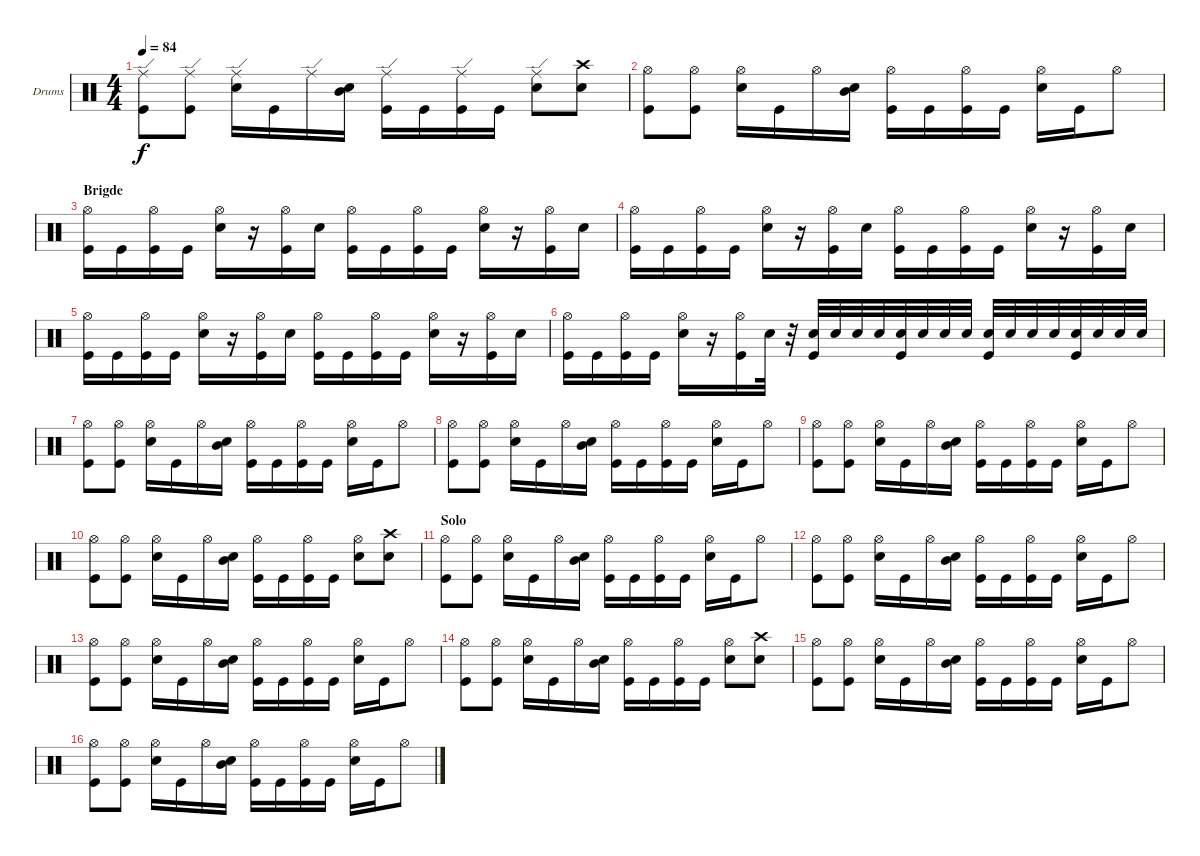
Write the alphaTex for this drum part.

\bracketExtendMode groupsimilarinstruments
\firstSystemTrackNameOrientation horizontal
\otherSystemsTrackNameOrientation horizontal
\track ("Dave Grohl" "Drums") {instrument percussion}
\staff {score}
\articulation defaults
\ts (4 4)
\tempo 84
\clef neutral
\ks c
("Ride (edge)" "Kick (hit)").8{dy f} ("Ride (edge)" "Kick (hit)").8 ("Ride (edge)" "Snare (hit) 2").16 "Kick (hit)".16 "Ride (edge)".16 ("Snare (hit) 2" "Mid Tom (hit)").16 ("Ride (edge)" "Kick (hit)").16 "Kick (hit)".16 ("Ride (edge)" "Kick (hit)").16 "Kick (hit)".16 ("Ride (edge)" "Snare (hit) 2").8 ("Crash high (hit)" "Snare (hit) 2").8 |
("Hi-Hat (open)" "Kick (hit)").8 ("Hi-Hat (open)" "Kick (hit)").8 ("Hi-Hat (open)" "Snare (hit) 2").16 "Kick (hit)".16 "Hi-Hat (open)".16 ("Snare (hit) 2" "Mid Tom (hit)").16 ("Hi-Hat (open)" "Kick (hit)").16 "Kick (hit)".16 ("Hi-Hat (open)" "Kick (hit)").16 "Kick (hit)".16 ("Hi-Hat (open)" "Snare (hit) 2").16 "Kick (hit)".16 "Hi-Hat (open)".8 |
\section ("" "Brigde")
("Hi-Hat (open)" "Kick (hit)").16 "Kick (hit)".16 ("Hi-Hat (open)" "Kick (hit)").16 "Kick (hit)".16 ("Hi-Hat (open)" "Snare (hit) 2").16 r.16 ("Hi-Hat (open)" "Kick (hit)").16 "Snare (hit) 2".16 ("Hi-Hat (open)" "Kick (hit)").16 "Kick (hit)".16 ("Hi-Hat (open)" "Kick (hit)").16 "Kick (hit)".16 ("Hi-Hat (open)" "Snare (hit) 2").16 r.16 ("Hi-Hat (open)" "Kick (hit)").16 "Snare (hit) 2".16 |
("Hi-Hat (open)" "Kick (hit)").16 "Kick (hit)".16 ("Hi-Hat (open)" "Kick (hit)").16 "Kick (hit)".16 ("Hi-Hat (open)" "Snare (hit) 2").16 r.16 ("Hi-Hat (open)" "Kick (hit)").16 "Snare (hit) 2".16 ("Hi-Hat (open)" "Kick (hit)").16 "Kick (hit)".16 ("Hi-Hat (open)" "Kick (hit)").16 "Kick (hit)".16 ("Hi-Hat (open)" "Snare (hit) 2").16 r.16 ("Hi-Hat (open)" "Kick (hit)").16 "Snare (hit) 2".16 |
("Hi-Hat (open)" "Kick (hit)").16 "Kick (hit)".16 ("Hi-Hat (open)" "Kick (hit)").16 "Kick (hit)".16 ("Hi-Hat (open)" "Snare (hit) 2").16 r.16 ("Hi-Hat (open)" "Kick (hit)").16 "Snare (hit) 2".16 ("Hi-Hat (open)" "Kick (hit)").16 "Kick (hit)".16 ("Hi-Hat (open)" "Kick (hit)").16 "Kick (hit)".16 ("Hi-Hat (open)" "Snare (hit) 2").16 r.16 ("Hi-Hat (open)" "Kick (hit)").16 "Snare (hit) 2".16 |
("Hi-Hat (open)" "Kick (hit)").16 "Kick (hit)".16 ("Hi-Hat (open)" "Kick (hit)").16 "Kick (hit)".16 ("Hi-Hat (open)" "Snare (hit) 2").16 r.16 ("Hi-Hat (open)" "Kick (hit)").16 "Snare (hit) 2".32 r.32 ("Kick (hit)" "Snare (hit) 2").32 "Snare (hit) 2".32 "Snare (hit) 2".32 "Snare (hit) 2".32 ("Kick (hit)" "Snare (hit) 2").32 "Snare (hit) 2".32 "Snare (hit) 2".32 "Snare (hit) 2".32 ("Kick (hit)" "Snare (hit) 2").32 "Snare (hit) 2".32 "Snare (hit) 2".32 "Snare (hit) 2".32 ("Kick (hit)" "Snare (hit) 2").32 "Snare (hit) 2".32 "Snare (hit) 2".32 "Snare (hit) 2".32 |
("Hi-Hat (open)" "Kick (hit)").8 ("Hi-Hat (open)" "Kick (hit)").8 ("Hi-Hat (open)" "Snare (hit) 2").16 "Kick (hit)".16 "Hi-Hat (open)".16 ("Snare (hit) 2" "Mid Tom (hit)").16 ("Hi-Hat (open)" "Kick (hit)").16 "Kick (hit)".16 ("Hi-Hat (open)" "Kick (hit)").16 "Kick (hit)".16 ("Hi-Hat (open)" "Snare (hit) 2").16 "Kick (hit)".16 "Hi-Hat (open)".8 |
("Hi-Hat (open)" "Kick (hit)").8 ("Hi-Hat (open)" "Kick (hit)").8 ("Hi-Hat (open)" "Snare (hit) 2").16 "Kick (hit)".16 "Hi-Hat (open)".16 ("Snare (hit) 2" "Mid Tom (hit)").16 ("Hi-Hat (open)" "Kick (hit)").16 "Kick (hit)".16 ("Hi-Hat (open)" "Kick (hit)").16 "Kick (hit)".16 ("Hi-Hat (open)" "Snare (hit) 2").16 "Kick (hit)".16 "Hi-Hat (open)".8 |
("Hi-Hat (open)" "Kick (hit)").8 ("Hi-Hat (open)" "Kick (hit)").8 ("Hi-Hat (open)" "Snare (hit) 2").16 "Kick (hit)".16 "Hi-Hat (open)".16 ("Snare (hit) 2" "Mid Tom (hit)").16 ("Hi-Hat (open)" "Kick (hit)").16 "Kick (hit)".16 ("Hi-Hat (open)" "Kick (hit)").16 "Kick (hit)".16 ("Hi-Hat (open)" "Snare (hit) 2").16 "Kick (hit)".16 "Hi-Hat (open)".8 |
("Hi-Hat (open)" "Kick (hit)").8 ("Hi-Hat (open)" "Kick (hit)").8 ("Hi-Hat (open)" "Snare (hit) 2").16 "Kick (hit)".16 "Hi-Hat (open)".16 ("Snare (hit) 2" "Mid Tom (hit)").16 ("Hi-Hat (open)" "Kick (hit)").16 "Kick (hit)".16 ("Hi-Hat (open)" "Kick (hit)").16 "Kick (hit)".16 ("Hi-Hat (open)" "Snare (hit) 2").8 ("Crash high (hit)" "Snare (hit) 2").8 |
\section ("" "Solo")
("Hi-Hat (open)" "Kick (hit)").8 ("Hi-Hat (open)" "Kick (hit)").8 ("Hi-Hat (open)" "Snare (hit) 2").16 "Kick (hit)".16 "Hi-Hat (open)".16 ("Snare (hit) 2" "Mid Tom (hit)").16 ("Hi-Hat (open)" "Kick (hit)").16 "Kick (hit)".16 ("Hi-Hat (open)" "Kick (hit)").16 "Kick (hit)".16 ("Hi-Hat (open)" "Snare (hit) 2").16 "Kick (hit)".16 "Hi-Hat (open)".8 |
("Hi-Hat (open)" "Kick (hit)").8 ("Hi-Hat (open)" "Kick (hit)").8 ("Hi-Hat (open)" "Snare (hit) 2").16 "Kick (hit)".16 "Hi-Hat (open)".16 ("Snare (hit) 2" "Mid Tom (hit)").16 ("Hi-Hat (open)" "Kick (hit)").16 "Kick (hit)".16 ("Hi-Hat (open)" "Kick (hit)").16 "Kick (hit)".16 ("Hi-Hat (open)" "Snare (hit) 2").16 "Kick (hit)".16 "Hi-Hat (open)".8 |
("Hi-Hat (open)" "Kick (hit)").8 ("Hi-Hat (open)" "Kick (hit)").8 ("Hi-Hat (open)" "Snare (hit) 2").16 "Kick (hit)".16 "Hi-Hat (open)".16 ("Snare (hit) 2" "Mid Tom (hit)").16 ("Hi-Hat (open)" "Kick (hit)").16 "Kick (hit)".16 ("Hi-Hat (open)" "Kick (hit)").16 "Kick (hit)".16 ("Hi-Hat (open)" "Snare (hit) 2").16 "Kick (hit)".16 "Hi-Hat (open)".8 |
("Hi-Hat (open)" "Kick (hit)").8 ("Hi-Hat (open)" "Kick (hit)").8 ("Hi-Hat (open)" "Snare (hit) 2").16 "Kick (hit)".16 "Hi-Hat (open)".16 ("Snare (hit) 2" "Mid Tom (hit)").16 ("Hi-Hat (open)" "Kick (hit)").16 "Kick (hit)".16 ("Hi-Hat (open)" "Kick (hit)").16 "Kick (hit)".16 ("Hi-Hat (open)" "Snare (hit) 2").8 ("Crash high (hit)" "Snare (hit) 2").8 |
("Hi-Hat (open)" "Kick (hit)").8 ("Hi-Hat (open)" "Kick (hit)").8 ("Hi-Hat (open)" "Snare (hit) 2").16 "Kick (hit)".16 "Hi-Hat (open)".16 ("Snare (hit) 2" "Mid Tom (hit)").16 ("Hi-Hat (open)" "Kick (hit)").16 "Kick (hit)".16 ("Hi-Hat (open)" "Kick (hit)").16 "Kick (hit)".16 ("Hi-Hat (open)" "Snare (hit) 2").16 "Kick (hit)".16 "Hi-Hat (open)".8 |
("Hi-Hat (open)" "Kick (hit)").8 ("Hi-Hat (open)" "Kick (hit)").8 ("Hi-Hat (open)" "Snare (hit) 2").16 "Kick (hit)".16 "Hi-Hat (open)".16 ("Snare (hit) 2" "Mid Tom (hit)").16 ("Hi-Hat (open)" "Kick (hit)").16 "Kick (hit)".16 ("Hi-Hat (open)" "Kick (hit)").16 "Kick (hit)".16 ("Hi-Hat (open)" "Snare (hit) 2").16 "Kick (hit)".16 "Hi-Hat (open)".8
